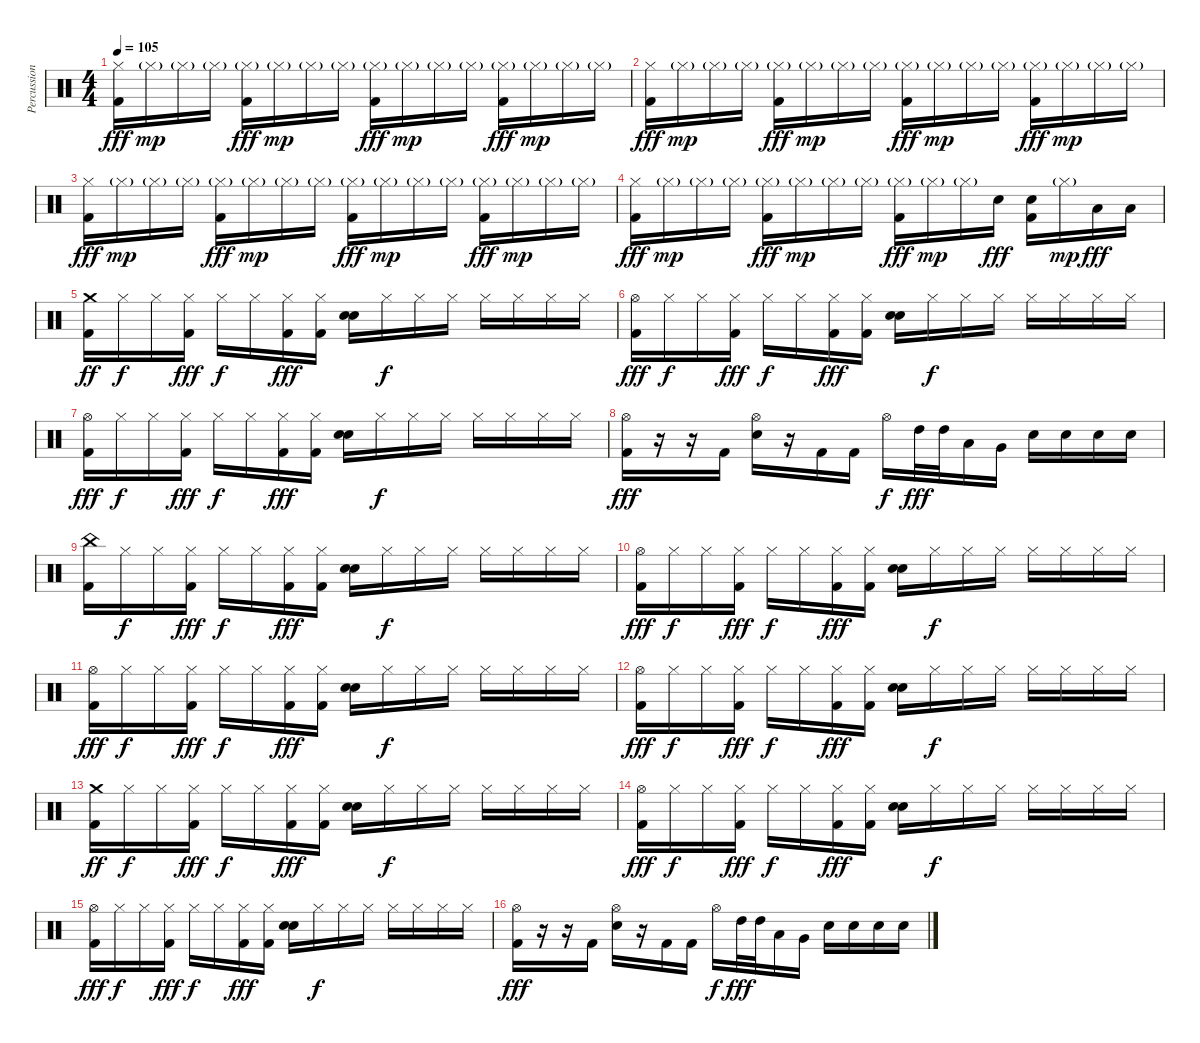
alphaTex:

\track ("Percussions" "Percussion") {instrument percussion}
\staff {score}
\articulation defaults
\ts (4 4)
\tempo 105
\clef neutral
\ks c
("Hi-Hat (closed)" "Kick (hit) 2").16{dy fff} "Hi-Hat (closed)"{g}.16{dy mp} "Hi-Hat (closed)"{g}.16 "Hi-Hat (closed)"{g}.16 ("Hi-Hat (closed)"{g} "Kick (hit) 2").16{dy fff} "Hi-Hat (closed)"{g}.16{dy mp} "Hi-Hat (closed)"{g}.16 "Hi-Hat (closed)"{g}.16 ("Hi-Hat (closed)"{g} "Kick (hit) 2").16{dy fff} "Hi-Hat (closed)"{g}.16{dy mp} "Hi-Hat (closed)"{g}.16 "Hi-Hat (closed)"{g}.16 ("Hi-Hat (closed)"{g} "Kick (hit) 2").16{dy fff} "Hi-Hat (closed)"{g}.16{dy mp} "Hi-Hat (closed)"{g}.16 "Hi-Hat (closed)"{g}.16 |
("Hi-Hat (closed)" "Kick (hit) 2").16{dy fff} "Hi-Hat (closed)"{g}.16{dy mp} "Hi-Hat (closed)"{g}.16 "Hi-Hat (closed)"{g}.16 ("Hi-Hat (closed)"{g} "Kick (hit) 2").16{dy fff} "Hi-Hat (closed)"{g}.16{dy mp} "Hi-Hat (closed)"{g}.16 "Hi-Hat (closed)"{g}.16 ("Hi-Hat (closed)"{g} "Kick (hit) 2").16{dy fff} "Hi-Hat (closed)"{g}.16{dy mp} "Hi-Hat (closed)"{g}.16 "Hi-Hat (closed)"{g}.16 ("Hi-Hat (closed)"{g} "Kick (hit) 2").16{dy fff} "Hi-Hat (closed)"{g}.16{dy mp} "Hi-Hat (closed)"{g}.16 "Hi-Hat (closed)"{g}.16 |
("Hi-Hat (closed)" "Kick (hit) 2").16{dy fff} "Hi-Hat (closed)"{g}.16{dy mp} "Hi-Hat (closed)"{g}.16 "Hi-Hat (closed)"{g}.16 ("Hi-Hat (closed)"{g} "Kick (hit) 2").16{dy fff} "Hi-Hat (closed)"{g}.16{dy mp} "Hi-Hat (closed)"{g}.16 "Hi-Hat (closed)"{g}.16 ("Hi-Hat (closed)"{g} "Kick (hit) 2").16{dy fff} "Hi-Hat (closed)"{g}.16{dy mp} "Hi-Hat (closed)"{g}.16 "Hi-Hat (closed)"{g}.16 ("Hi-Hat (closed)"{g} "Kick (hit) 2").16{dy fff} "Hi-Hat (closed)"{g}.16{dy mp} "Hi-Hat (closed)"{g}.16 "Hi-Hat (closed)"{g}.16 |
("Hi-Hat (closed)" "Kick (hit) 2").16{dy fff} "Hi-Hat (closed)"{g}.16{dy mp} "Hi-Hat (closed)"{g}.16 "Hi-Hat (closed)"{g}.16 ("Hi-Hat (closed)"{g} "Kick (hit) 2").16{dy fff} "Hi-Hat (closed)"{g}.16{dy mp} "Hi-Hat (closed)"{g}.16 "Hi-Hat (closed)"{g}.16 ("Hi-Hat (closed)"{g} "Kick (hit) 2").16{dy fff} "Hi-Hat (closed)"{g}.16{dy mp} "Hi-Hat (closed)"{g}.16 "Electric Snare (hit)".16{dy fff} ("Electric Snare (hit)" "Kick (hit) 2").16 "Hi-Hat (closed)"{g}.16{dy mp} "Low Tom (hit)".16{dy fff} "Low Tom (hit)".16 |
("Crash medium (hit)" "Kick (hit) 2").16{dy ff} "Hi-Hat (closed)".16{dy f} "Hi-Hat (closed)".16 ("Hi-Hat (closed)" "Kick (hit) 2").16{dy fff} "Hi-Hat (closed)".16{dy f} "Hi-Hat (closed)".16 ("Hi-Hat (closed)" "Kick (hit) 2").16{dy fff} ("Hi-Hat (closed)" "Kick (hit) 2").16 ("Electric Snare (hit)" "Electric Snare (hit)").16 "Hi-Hat (closed)".16{dy f} "Hi-Hat (closed)".16 "Hi-Hat (closed)".16 "Hi-Hat (closed)".16 "Hi-Hat (closed)".16 "Hi-Hat (closed)".16 "Hi-Hat (closed)".16 |
("Hi-Hat (open)" "Kick (hit) 2").16{dy fff} "Hi-Hat (closed)".16{dy f} "Hi-Hat (closed)".16 ("Hi-Hat (closed)" "Kick (hit) 2").16{dy fff} "Hi-Hat (closed)".16{dy f} "Hi-Hat (closed)".16 ("Hi-Hat (closed)" "Kick (hit) 2").16{dy fff} ("Hi-Hat (closed)" "Kick (hit) 2").16 ("Electric Snare (hit)" "Electric Snare (hit)").16 "Hi-Hat (closed)".16{dy f} "Hi-Hat (closed)".16 "Hi-Hat (closed)".16 "Hi-Hat (closed)".16 "Hi-Hat (closed)".16 "Hi-Hat (closed)".16 "Hi-Hat (closed)".16 |
("Hi-Hat (open)" "Kick (hit) 2").16{dy fff} "Hi-Hat (closed)".16{dy f} "Hi-Hat (closed)".16 ("Hi-Hat (closed)" "Kick (hit) 2").16{dy fff} "Hi-Hat (closed)".16{dy f} "Hi-Hat (closed)".16 ("Hi-Hat (closed)" "Kick (hit) 2").16{dy fff} ("Hi-Hat (closed)" "Kick (hit) 2").16 ("Electric Snare (hit)" "Electric Snare (hit)").16 "Hi-Hat (closed)".16{dy f} "Hi-Hat (closed)".16 "Hi-Hat (closed)".16 "Hi-Hat (closed)".16 "Hi-Hat (closed)".16 "Hi-Hat (closed)".16 "Hi-Hat (closed)".16 |
("Hi-Hat (open)" "Kick (hit) 2").16{dy fff} r.16 r.16 "Kick (hit) 2".16 ("Hi-Hat (open)" "Electric Snare (hit)").16 r.16 "Kick (hit) 2".16 "Kick (hit) 2".16 "Hi-Hat (open)".16{dy f} "High Tom (hit)".32{dy fff} "High Tom (hit)".32 "Low Tom (hit)".16 "Very Low Tom (hit)".16 "Electric Snare (hit)".16 "Electric Snare (hit)".16 "Electric Snare (hit)".16 "Electric Snare (hit)".16 |
("China (hit)" "Kick (hit) 2").16 "Hi-Hat (closed)".16{dy f} "Hi-Hat (closed)".16 ("Hi-Hat (closed)" "Kick (hit) 2").16{dy fff} "Hi-Hat (closed)".16{dy f} "Hi-Hat (closed)".16 ("Hi-Hat (closed)" "Kick (hit) 2").16{dy fff} ("Hi-Hat (closed)" "Kick (hit) 2").16 ("Electric Snare (hit)" "Electric Snare (hit)").16 "Hi-Hat (closed)".16{dy f} "Hi-Hat (closed)".16 "Hi-Hat (closed)".16 "Hi-Hat (closed)".16 "Hi-Hat (closed)".16 "Hi-Hat (closed)".16 "Hi-Hat (closed)".16 |
("Hi-Hat (open)" "Kick (hit) 2").16{dy fff} "Hi-Hat (closed)".16{dy f} "Hi-Hat (closed)".16 ("Hi-Hat (closed)" "Kick (hit) 2").16{dy fff} "Hi-Hat (closed)".16{dy f} "Hi-Hat (closed)".16 ("Hi-Hat (closed)" "Kick (hit) 2").16{dy fff} ("Hi-Hat (closed)" "Kick (hit) 2").16 ("Electric Snare (hit)" "Electric Snare (hit)").16 "Hi-Hat (closed)".16{dy f} "Hi-Hat (closed)".16 "Hi-Hat (closed)".16 "Hi-Hat (closed)".16 "Hi-Hat (closed)".16 "Hi-Hat (closed)".16 "Hi-Hat (closed)".16 |
("Hi-Hat (open)" "Kick (hit) 2").16{dy fff} "Hi-Hat (closed)".16{dy f} "Hi-Hat (closed)".16 ("Hi-Hat (closed)" "Kick (hit) 2").16{dy fff} "Hi-Hat (closed)".16{dy f} "Hi-Hat (closed)".16 ("Hi-Hat (closed)" "Kick (hit) 2").16{dy fff} ("Hi-Hat (closed)" "Kick (hit) 2").16 ("Electric Snare (hit)" "Electric Snare (hit)").16 "Hi-Hat (closed)".16{dy f} "Hi-Hat (closed)".16 "Hi-Hat (closed)".16 "Hi-Hat (closed)".16 "Hi-Hat (closed)".16 "Hi-Hat (closed)".16 "Hi-Hat (closed)".16 |
("Hi-Hat (open)" "Kick (hit) 2").16{dy fff} "Hi-Hat (closed)".16{dy f} "Hi-Hat (closed)".16 ("Hi-Hat (closed)" "Kick (hit) 2").16{dy fff} "Hi-Hat (closed)".16{dy f} "Hi-Hat (closed)".16 ("Hi-Hat (closed)" "Kick (hit) 2").16{dy fff} ("Hi-Hat (closed)" "Kick (hit) 2").16 ("Electric Snare (hit)" "Electric Snare (hit)").16 "Hi-Hat (closed)".16{dy f} "Hi-Hat (closed)".16 "Hi-Hat (closed)".16 "Hi-Hat (closed)".16 "Hi-Hat (closed)".16 "Hi-Hat (closed)".16 "Hi-Hat (closed)".16 |
("Crash medium (hit)" "Kick (hit) 2").16{dy ff} "Hi-Hat (closed)".16{dy f} "Hi-Hat (closed)".16 ("Hi-Hat (closed)" "Kick (hit) 2").16{dy fff} "Hi-Hat (closed)".16{dy f} "Hi-Hat (closed)".16 ("Hi-Hat (closed)" "Kick (hit) 2").16{dy fff} ("Hi-Hat (closed)" "Kick (hit) 2").16 ("Electric Snare (hit)" "Electric Snare (hit)").16 "Hi-Hat (closed)".16{dy f} "Hi-Hat (closed)".16 "Hi-Hat (closed)".16 "Hi-Hat (closed)".16 "Hi-Hat (closed)".16 "Hi-Hat (closed)".16 "Hi-Hat (closed)".16 |
("Hi-Hat (open)" "Kick (hit) 2").16{dy fff} "Hi-Hat (closed)".16{dy f} "Hi-Hat (closed)".16 ("Hi-Hat (closed)" "Kick (hit) 2").16{dy fff} "Hi-Hat (closed)".16{dy f} "Hi-Hat (closed)".16 ("Hi-Hat (closed)" "Kick (hit) 2").16{dy fff} ("Hi-Hat (closed)" "Kick (hit) 2").16 ("Electric Snare (hit)" "Electric Snare (hit)").16 "Hi-Hat (closed)".16{dy f} "Hi-Hat (closed)".16 "Hi-Hat (closed)".16 "Hi-Hat (closed)".16 "Hi-Hat (closed)".16 "Hi-Hat (closed)".16 "Hi-Hat (closed)".16 |
("Hi-Hat (open)" "Kick (hit) 2").16{dy fff} "Hi-Hat (closed)".16{dy f} "Hi-Hat (closed)".16 ("Hi-Hat (closed)" "Kick (hit) 2").16{dy fff} "Hi-Hat (closed)".16{dy f} "Hi-Hat (closed)".16 ("Hi-Hat (closed)" "Kick (hit) 2").16{dy fff} ("Hi-Hat (closed)" "Kick (hit) 2").16 ("Electric Snare (hit)" "Electric Snare (hit)").16 "Hi-Hat (closed)".16{dy f} "Hi-Hat (closed)".16 "Hi-Hat (closed)".16 "Hi-Hat (closed)".16 "Hi-Hat (closed)".16 "Hi-Hat (closed)".16 "Hi-Hat (closed)".16 |
("Hi-Hat (open)" "Kick (hit) 2").16{dy fff} r.16 r.16 "Kick (hit) 2".16 ("Hi-Hat (open)" "Electric Snare (hit)").16 r.16 "Kick (hit) 2".16 "Kick (hit) 2".16 "Hi-Hat (open)".16{dy f} "High Tom (hit)".32{dy fff} "High Tom (hit)".32 "Low Tom (hit)".16 "Very Low Tom (hit)".16 "Electric Snare (hit)".16 "Electric Snare (hit)".16 "Electric Snare (hit)".16 "Electric Snare (hit)".16
